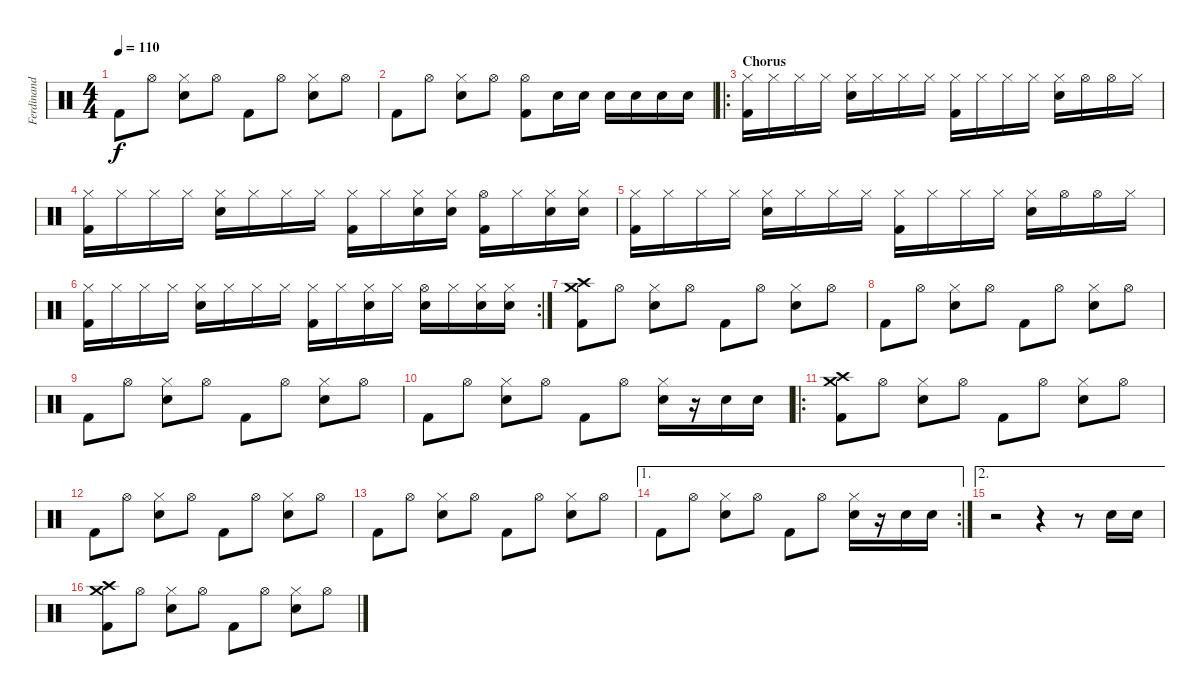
\track ("Ferdinand" "Ferdinand") {instrument percussion}
\staff {score}
\articulation defaults
\ts (4 4)
\tempo 110
\clef neutral
\ks c "Kick (hit) 2".8{dy f} "Hi-Hat (open)".8
("Hi-Hat (closed)" "Electric Snare (hit)").8 "Hi-Hat (open)".8 "Kick (hit) 2".8 "Hi-Hat (open)".8 ("Hi-Hat (closed)" "Electric Snare (hit)").8 "Hi-Hat (open)".8 |
"Kick (hit) 2".8 "Hi-Hat (open)".8 ("Hi-Hat (closed)" "Electric Snare (hit)").8 "Hi-Hat (open)".8 ("Hi-Hat (open)" "Kick (hit) 2").8 "Electric Snare (hit)".16 "Electric Snare (hit)".16 "Electric Snare (hit)".16 "Electric Snare (hit)".16 "Electric Snare (hit)".16 "Electric Snare (hit)".16 |
\ro
\section ("" "Chorus")
("Hi-Hat (closed)" "Kick (hit) 2").16 "Hi-Hat (closed)".16 "Hi-Hat (closed)".16 "Hi-Hat (closed)".16 ("Hi-Hat (closed)" "Electric Snare (hit)").16 "Hi-Hat (closed)".16 "Hi-Hat (closed)".16 "Hi-Hat (closed)".16 ("Hi-Hat (closed)" "Kick (hit) 2").16 "Hi-Hat (closed)".16 "Hi-Hat (closed)".16 "Hi-Hat (closed)".16 ("Hi-Hat (closed)" "Electric Snare (hit)").16 "Hi-Hat (open)".16 "Hi-Hat (open)".16 "Hi-Hat (closed)".16 |
("Hi-Hat (closed)" "Kick (hit) 2").16 "Hi-Hat (closed)".16 "Hi-Hat (closed)".16 "Hi-Hat (closed)".16 ("Hi-Hat (closed)" "Electric Snare (hit)").16 "Hi-Hat (closed)".16 "Hi-Hat (closed)".16 "Hi-Hat (closed)".16 ("Hi-Hat (closed)" "Kick (hit) 2").16 "Hi-Hat (closed)".16 ("Hi-Hat (closed)" "Electric Snare (hit)").16 ("Hi-Hat (closed)" "Electric Snare (hit)").16 ("Hi-Hat (open)" "Kick (hit) 2").16 "Hi-Hat (closed)".16 ("Hi-Hat (closed)" "Electric Snare (hit)").16 ("Hi-Hat (closed)" "Electric Snare (hit)").16 |
("Hi-Hat (closed)" "Kick (hit) 2").16 "Hi-Hat (closed)".16 "Hi-Hat (closed)".16 "Hi-Hat (closed)".16 ("Hi-Hat (closed)" "Electric Snare (hit)").16 "Hi-Hat (closed)".16 "Hi-Hat (closed)".16 "Hi-Hat (closed)".16 ("Hi-Hat (closed)" "Kick (hit) 2").16 "Hi-Hat (closed)".16 "Hi-Hat (closed)".16 "Hi-Hat (closed)".16 ("Hi-Hat (closed)" "Electric Snare (hit)").16 "Hi-Hat (open)".16 "Hi-Hat (open)".16 "Hi-Hat (closed)".16 |
\rc 2
("Hi-Hat (closed)" "Kick (hit) 2").16 "Hi-Hat (closed)".16 "Hi-Hat (closed)".16 "Hi-Hat (closed)".16 ("Hi-Hat (closed)" "Electric Snare (hit)").16 "Hi-Hat (closed)".16 "Hi-Hat (closed)".16 "Hi-Hat (closed)".16 ("Hi-Hat (closed)" "Kick (hit) 2").16 "Hi-Hat (closed)".16 ("Hi-Hat (closed)" "Electric Snare (hit)").16 "Hi-Hat (closed)".16 ("Hi-Hat (open)" "Electric Snare (hit)").16 "Hi-Hat (closed)".16 ("Hi-Hat (closed)" "Electric Snare (hit)").16 ("Hi-Hat (closed)" "Electric Snare (hit)").16 |
("Crash medium (hit)" "Crash high (hit)" "Kick (hit) 2").8 "Hi-Hat (open)".8 ("Hi-Hat (closed)" "Electric Snare (hit)").8 "Hi-Hat (open)".8 "Kick (hit) 2".8 "Hi-Hat (open)".8 ("Hi-Hat (closed)" "Electric Snare (hit)").8 "Hi-Hat (open)".8 |
"Kick (hit) 2".8 "Hi-Hat (open)".8 ("Hi-Hat (closed)" "Electric Snare (hit)").8 "Hi-Hat (open)".8 "Kick (hit) 2".8 "Hi-Hat (open)".8 ("Hi-Hat (closed)" "Electric Snare (hit)").8 "Hi-Hat (open)".8 |
"Kick (hit) 2".8 "Hi-Hat (open)".8 ("Hi-Hat (closed)" "Electric Snare (hit)").8 "Hi-Hat (open)".8 "Kick (hit) 2".8 "Hi-Hat (open)".8 ("Hi-Hat (closed)" "Electric Snare (hit)").8 "Hi-Hat (open)".8 |
"Kick (hit) 2".8 "Hi-Hat (open)".8 ("Hi-Hat (closed)" "Electric Snare (hit)").8 "Hi-Hat (open)".8 "Kick (hit) 2".8 "Hi-Hat (open)".8 ("Hi-Hat (closed)" "Electric Snare (hit)").16 r.16 "Electric Snare (hit)".16 "Electric Snare (hit)".16 |
\ro
("Crash medium (hit)" "Crash high (hit)" "Kick (hit) 2").8 "Hi-Hat (open)".8 ("Hi-Hat (closed)" "Electric Snare (hit)").8 "Hi-Hat (open)".8 "Kick (hit) 2".8 "Hi-Hat (open)".8 ("Hi-Hat (closed)" "Electric Snare (hit)").8 "Hi-Hat (open)".8 |
"Kick (hit) 2".8 "Hi-Hat (open)".8 ("Hi-Hat (closed)" "Electric Snare (hit)").8 "Hi-Hat (open)".8 "Kick (hit) 2".8 "Hi-Hat (open)".8 ("Hi-Hat (closed)" "Electric Snare (hit)").8 "Hi-Hat (open)".8 |
"Kick (hit) 2".8 "Hi-Hat (open)".8 ("Hi-Hat (closed)" "Electric Snare (hit)").8 "Hi-Hat (open)".8 "Kick (hit) 2".8 "Hi-Hat (open)".8 ("Hi-Hat (closed)" "Electric Snare (hit)").8 "Hi-Hat (open)".8 |
\ae 1
\rc 2 "Kick (hit) 2".8 "Hi-Hat (open)".8
("Hi-Hat (closed)" "Electric Snare (hit)").8 "Hi-Hat (open)".8 "Kick (hit) 2".8 "Hi-Hat (open)".8 ("Hi-Hat (closed)" "Electric Snare (hit)").16 r.16 "Electric Snare (hit)".16 "Electric Snare (hit)".16 |
\ae 2
r.2 r.4 r.8 "Electric Snare (hit)".16 "Electric Snare (hit)".16 |
("Crash medium (hit)" "Crash high (hit)" "Kick (hit) 2").8 "Hi-Hat (open)".8 ("Hi-Hat (closed)" "Electric Snare (hit)").8 "Hi-Hat (open)".8 "Kick (hit) 2".8 "Hi-Hat (open)".8 ("Hi-Hat (closed)" "Electric Snare (hit)").8 "Hi-Hat (open)".8
